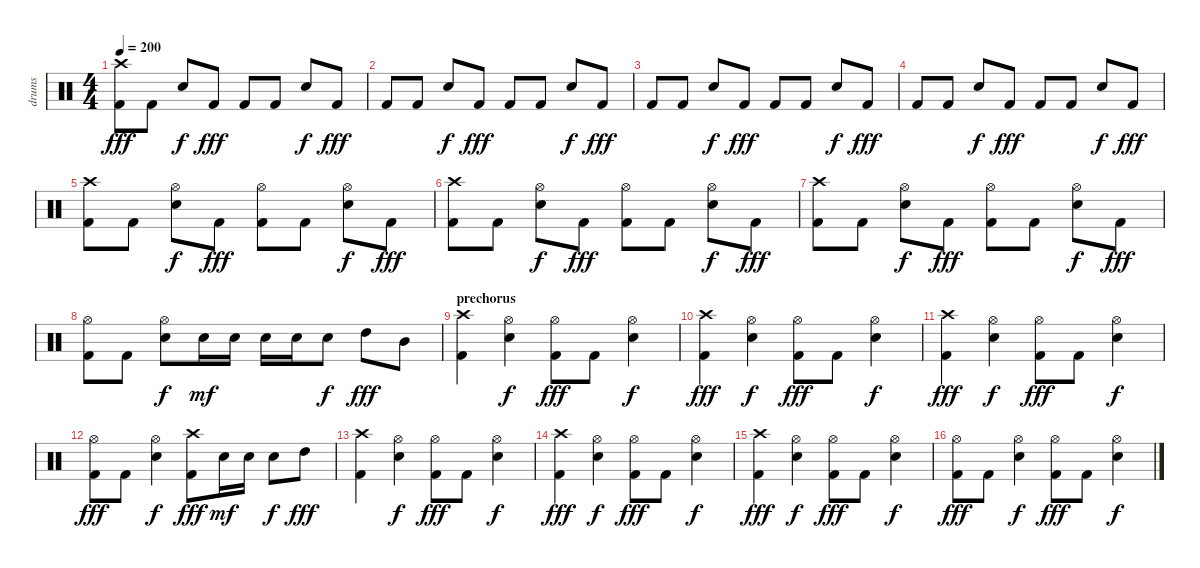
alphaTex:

\track ("drums" "drums") {instrument percussion}
\staff {score}
\articulation defaults
\ts (4 4)
\tempo 200
\clef neutral
\ks c
("Crash high (hit)" "Kick (hit) 2").8{dy fff} "Kick (hit) 2".8 "Snare (hit) 2".8{dy f} "Kick (hit) 2".8{dy fff} "Kick (hit) 2".8 "Kick (hit) 2".8 "Snare (hit) 2".8{dy f} "Kick (hit) 2".8{dy fff} |
"Kick (hit) 2".8 "Kick (hit) 2".8 "Snare (hit) 2".8{dy f} "Kick (hit) 2".8{dy fff} "Kick (hit) 2".8 "Kick (hit) 2".8 "Snare (hit) 2".8{dy f} "Kick (hit) 2".8{dy fff} |
"Kick (hit) 2".8 "Kick (hit) 2".8 "Snare (hit) 2".8{dy f} "Kick (hit) 2".8{dy fff} "Kick (hit) 2".8 "Kick (hit) 2".8 "Snare (hit) 2".8{dy f} "Kick (hit) 2".8{dy fff} |
"Kick (hit) 2".8 "Kick (hit) 2".8 "Snare (hit) 2".8{dy f} "Kick (hit) 2".8{dy fff} "Kick (hit) 2".8 "Kick (hit) 2".8 "Snare (hit) 2".8{dy f} "Kick (hit) 2".8{dy fff} |
("Crash high (hit)" "Kick (hit) 2").8 "Kick (hit) 2".8 ("Hi-Hat (open)" "Snare (hit) 2").8{dy f} "Kick (hit) 2".8{dy fff} ("Hi-Hat (open)" "Kick (hit) 2").8 "Kick (hit) 2".8 ("Hi-Hat (open)" "Snare (hit) 2").8{dy f} "Kick (hit) 2".8{dy fff} |
("Crash high (hit)" "Kick (hit) 2").8 "Kick (hit) 2".8 ("Hi-Hat (open)" "Snare (hit) 2").8{dy f} "Kick (hit) 2".8{dy fff} ("Hi-Hat (open)" "Kick (hit) 2").8 "Kick (hit) 2".8 ("Hi-Hat (open)" "Snare (hit) 2").8{dy f} "Kick (hit) 2".8{dy fff} |
("Crash high (hit)" "Kick (hit) 2").8 "Kick (hit) 2".8 ("Hi-Hat (open)" "Snare (hit) 2").8{dy f} "Kick (hit) 2".8{dy fff} ("Hi-Hat (open)" "Kick (hit) 2").8 "Kick (hit) 2".8 ("Hi-Hat (open)" "Snare (hit) 2").8{dy f} "Kick (hit) 2".8{dy fff} |
("Hi-Hat (open)" "Kick (hit) 2").8 "Kick (hit) 2".8 ("Hi-Hat (open)" "Snare (hit) 2").8{dy f} "Snare (hit) 2".16{dy mf} "Snare (hit) 2".16 "Snare (hit) 2".16 "Snare (hit) 2".16 "Snare (hit) 2".8{dy f} "High Tom (hit)".8{dy fff} "Mid Tom (hit)".8 |
\section ("" "prechorus")
("Crash high (hit)" "Kick (hit) 2").4 ("Hi-Hat (open)" "Snare (hit) 2").4{dy f} ("Hi-Hat (open)" "Kick (hit) 2").8{dy fff} "Kick (hit) 2".8 ("Hi-Hat (open)" "Snare (hit) 2").4{dy f} |
("Crash high (hit)" "Kick (hit) 2").4{dy fff} ("Hi-Hat (open)" "Snare (hit) 2").4{dy f} ("Hi-Hat (open)" "Kick (hit) 2").8{dy fff} "Kick (hit) 2".8 ("Hi-Hat (open)" "Snare (hit) 2").4{dy f} |
("Crash high (hit)" "Kick (hit) 2").4{dy fff} ("Hi-Hat (open)" "Snare (hit) 2").4{dy f} ("Hi-Hat (open)" "Kick (hit) 2").8{dy fff} "Kick (hit) 2".8 ("Hi-Hat (open)" "Snare (hit) 2").4{dy f} |
("Hi-Hat (open)" "Kick (hit) 2").8{dy fff} "Kick (hit) 2".8 ("Hi-Hat (open)" "Snare (hit) 2").4{dy f} ("Crash high (hit)" "Kick (hit) 2").8{dy fff} "Snare (hit) 2".16{dy mf} "Snare (hit) 2".16 "Snare (hit) 2".8{dy f} "High Tom (hit)".8{dy fff} |
("Crash high (hit)" "Kick (hit) 2").4 ("Hi-Hat (open)" "Snare (hit) 2").4{dy f} ("Hi-Hat (open)" "Kick (hit) 2").8{dy fff} "Kick (hit) 2".8 ("Hi-Hat (open)" "Snare (hit) 2").4{dy f} |
("Crash high (hit)" "Kick (hit) 2").4{dy fff} ("Hi-Hat (open)" "Snare (hit) 2").4{dy f} ("Hi-Hat (open)" "Kick (hit) 2").8{dy fff} "Kick (hit) 2".8 ("Hi-Hat (open)" "Snare (hit) 2").4{dy f} |
("Crash high (hit)" "Kick (hit) 2").4{dy fff} ("Hi-Hat (open)" "Snare (hit) 2").4{dy f} ("Hi-Hat (open)" "Kick (hit) 2").8{dy fff} "Kick (hit) 2".8 ("Hi-Hat (open)" "Snare (hit) 2").4{dy f} |
("Hi-Hat (open)" "Kick (hit) 2").8{dy fff} "Kick (hit) 2".8 ("Hi-Hat (open)" "Snare (hit) 2").4{dy f} ("Hi-Hat (open)" "Kick (hit) 2").8{dy fff} "Kick (hit) 2".8 ("Hi-Hat (open)" "Snare (hit) 2").4{dy f}
